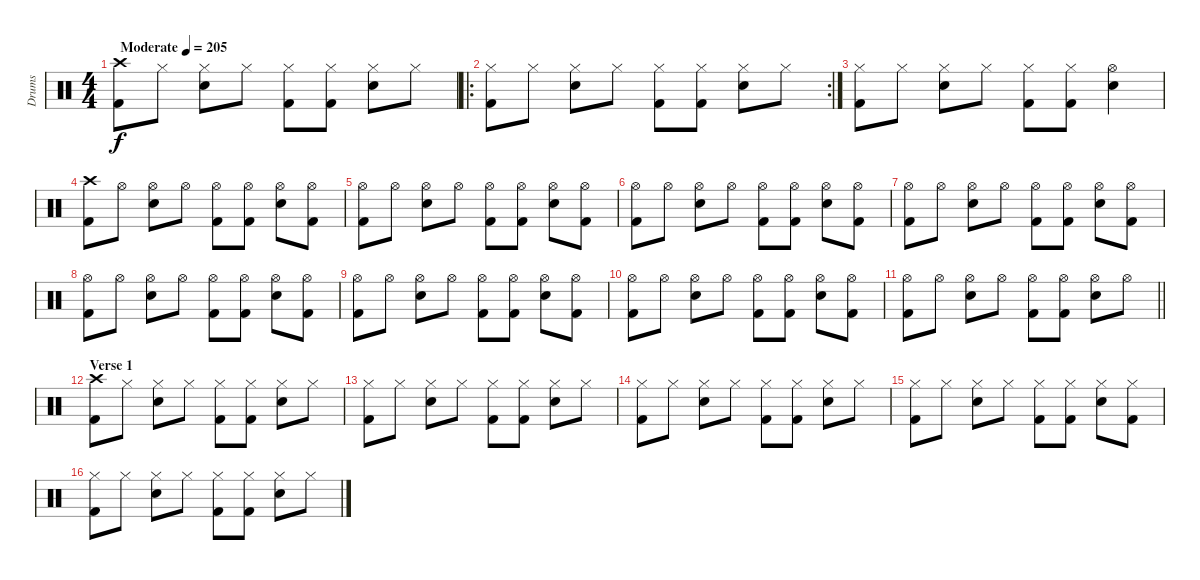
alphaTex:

\track ("Drums" "Drums") {instrument percussion}
\staff {score}
\articulation defaults
\ts (4 4)
\tempo (205 "Moderate")
\clef neutral
\ks c
("Crash high (hit)" "Kick (hit) 2").8{dy f} "Hi-Hat (closed)".8 ("Hi-Hat (closed)" "Electric Snare (hit)").8 "Hi-Hat (closed)".8 ("Hi-Hat (closed)" "Kick (hit) 2").8 ("Hi-Hat (closed)" "Kick (hit) 2").8 ("Hi-Hat (closed)" "Electric Snare (hit)").8 "Hi-Hat (closed)".8 |
\ro
\rc 2
("Hi-Hat (closed)" "Kick (hit) 2").8 "Hi-Hat (closed)".8 ("Hi-Hat (closed)" "Electric Snare (hit)").8 "Hi-Hat (closed)".8 ("Hi-Hat (closed)" "Kick (hit) 2").8 ("Hi-Hat (closed)" "Kick (hit) 2").8 ("Hi-Hat (closed)" "Electric Snare (hit)").8 "Hi-Hat (closed)".8 |
("Hi-Hat (closed)" "Kick (hit) 2").8 "Hi-Hat (closed)".8 ("Hi-Hat (closed)" "Electric Snare (hit)").8 "Hi-Hat (closed)".8 ("Hi-Hat (closed)" "Kick (hit) 2").8 ("Hi-Hat (closed)" "Kick (hit) 2").8 ("Hi-Hat (open)" "Electric Snare (hit)").4 |
("Crash high (hit)" "Kick (hit) 2").8 "Hi-Hat (open)".8 ("Hi-Hat (open)" "Electric Snare (hit)").8 "Hi-Hat (open)".8 ("Hi-Hat (open)" "Kick (hit) 2").8 ("Hi-Hat (open)" "Kick (hit) 2").8 ("Hi-Hat (open)" "Electric Snare (hit)").8 ("Hi-Hat (open)" "Kick (hit) 2").8 |
("Hi-Hat (open)" "Kick (hit) 2").8 "Hi-Hat (open)".8 ("Hi-Hat (open)" "Electric Snare (hit)").8 "Hi-Hat (open)".8 ("Hi-Hat (open)" "Kick (hit) 2").8 ("Hi-Hat (open)" "Kick (hit) 2").8 ("Hi-Hat (open)" "Electric Snare (hit)").8 ("Hi-Hat (open)" "Kick (hit) 2").8 |
("Hi-Hat (open)" "Kick (hit) 2").8 "Hi-Hat (open)".8 ("Hi-Hat (open)" "Electric Snare (hit)").8 "Hi-Hat (open)".8 ("Hi-Hat (open)" "Kick (hit) 2").8 ("Hi-Hat (open)" "Kick (hit) 2").8 ("Hi-Hat (open)" "Electric Snare (hit)").8 ("Hi-Hat (open)" "Kick (hit) 2").8 |
("Hi-Hat (open)" "Kick (hit) 2").8 "Hi-Hat (open)".8 ("Hi-Hat (open)" "Electric Snare (hit)").8 "Hi-Hat (open)".8 ("Hi-Hat (open)" "Kick (hit) 2").8 ("Hi-Hat (open)" "Kick (hit) 2").8 ("Hi-Hat (open)" "Electric Snare (hit)").8 ("Hi-Hat (open)" "Kick (hit) 2").8 |
("Hi-Hat (open)" "Kick (hit) 2").8 "Hi-Hat (open)".8 ("Hi-Hat (open)" "Electric Snare (hit)").8 "Hi-Hat (open)".8 ("Hi-Hat (open)" "Kick (hit) 2").8 ("Hi-Hat (open)" "Kick (hit) 2").8 ("Hi-Hat (open)" "Electric Snare (hit)").8 ("Hi-Hat (open)" "Kick (hit) 2").8 |
("Hi-Hat (open)" "Kick (hit) 2").8 "Hi-Hat (open)".8 ("Hi-Hat (open)" "Electric Snare (hit)").8 "Hi-Hat (open)".8 ("Hi-Hat (open)" "Kick (hit) 2").8 ("Hi-Hat (open)" "Kick (hit) 2").8 ("Hi-Hat (open)" "Electric Snare (hit)").8 ("Hi-Hat (open)" "Kick (hit) 2").8 |
("Hi-Hat (open)" "Kick (hit) 2").8 "Hi-Hat (open)".8 ("Hi-Hat (open)" "Electric Snare (hit)").8 "Hi-Hat (open)".8 ("Hi-Hat (open)" "Kick (hit) 2").8 ("Hi-Hat (open)" "Kick (hit) 2").8 ("Hi-Hat (open)" "Electric Snare (hit)").8 ("Hi-Hat (open)" "Kick (hit) 2").8 |
\barLineRight lightlight
("Hi-Hat (open)" "Kick (hit) 2").8 "Hi-Hat (open)".8 ("Hi-Hat (open)" "Electric Snare (hit)").8 "Hi-Hat (open)".8 ("Hi-Hat (open)" "Kick (hit) 2").8 ("Hi-Hat (open)" "Kick (hit) 2").8 ("Hi-Hat (open)" "Electric Snare (hit)").8 "Hi-Hat (open)".8 |
\section ("" "Verse 1")
("Crash high (hit)" "Kick (hit) 2").8 "Hi-Hat (closed)".8 ("Hi-Hat (closed)" "Electric Snare (hit)").8 "Hi-Hat (closed)".8 ("Hi-Hat (closed)" "Kick (hit) 2").8 ("Hi-Hat (closed)" "Kick (hit) 2").8 ("Hi-Hat (closed)" "Electric Snare (hit)").8 "Hi-Hat (closed)".8 |
("Hi-Hat (closed)" "Kick (hit) 2").8 "Hi-Hat (closed)".8 ("Hi-Hat (closed)" "Electric Snare (hit)").8 "Hi-Hat (closed)".8 ("Hi-Hat (closed)" "Kick (hit) 2").8 ("Hi-Hat (closed)" "Kick (hit) 2").8 ("Hi-Hat (closed)" "Electric Snare (hit)").8 "Hi-Hat (closed)".8 |
("Hi-Hat (closed)" "Kick (hit) 2").8 "Hi-Hat (closed)".8 ("Hi-Hat (closed)" "Electric Snare (hit)").8 "Hi-Hat (closed)".8 ("Hi-Hat (closed)" "Kick (hit) 2").8 ("Hi-Hat (closed)" "Kick (hit) 2").8 ("Hi-Hat (closed)" "Electric Snare (hit)").8 "Hi-Hat (closed)".8 |
("Hi-Hat (closed)" "Kick (hit) 2").8 "Hi-Hat (closed)".8 ("Hi-Hat (closed)" "Electric Snare (hit)").8 "Hi-Hat (closed)".8 ("Hi-Hat (closed)" "Kick (hit) 2").8 ("Hi-Hat (closed)" "Kick (hit) 2").8 ("Hi-Hat (closed)" "Electric Snare (hit)").8 ("Hi-Hat (closed)" "Kick (hit) 2").8 |
("Hi-Hat (closed)" "Kick (hit) 2").8 "Hi-Hat (closed)".8 ("Hi-Hat (closed)" "Electric Snare (hit)").8 "Hi-Hat (closed)".8 ("Hi-Hat (closed)" "Kick (hit) 2").8 ("Hi-Hat (closed)" "Kick (hit) 2").8 ("Hi-Hat (closed)" "Electric Snare (hit)").8 "Hi-Hat (closed)".8
